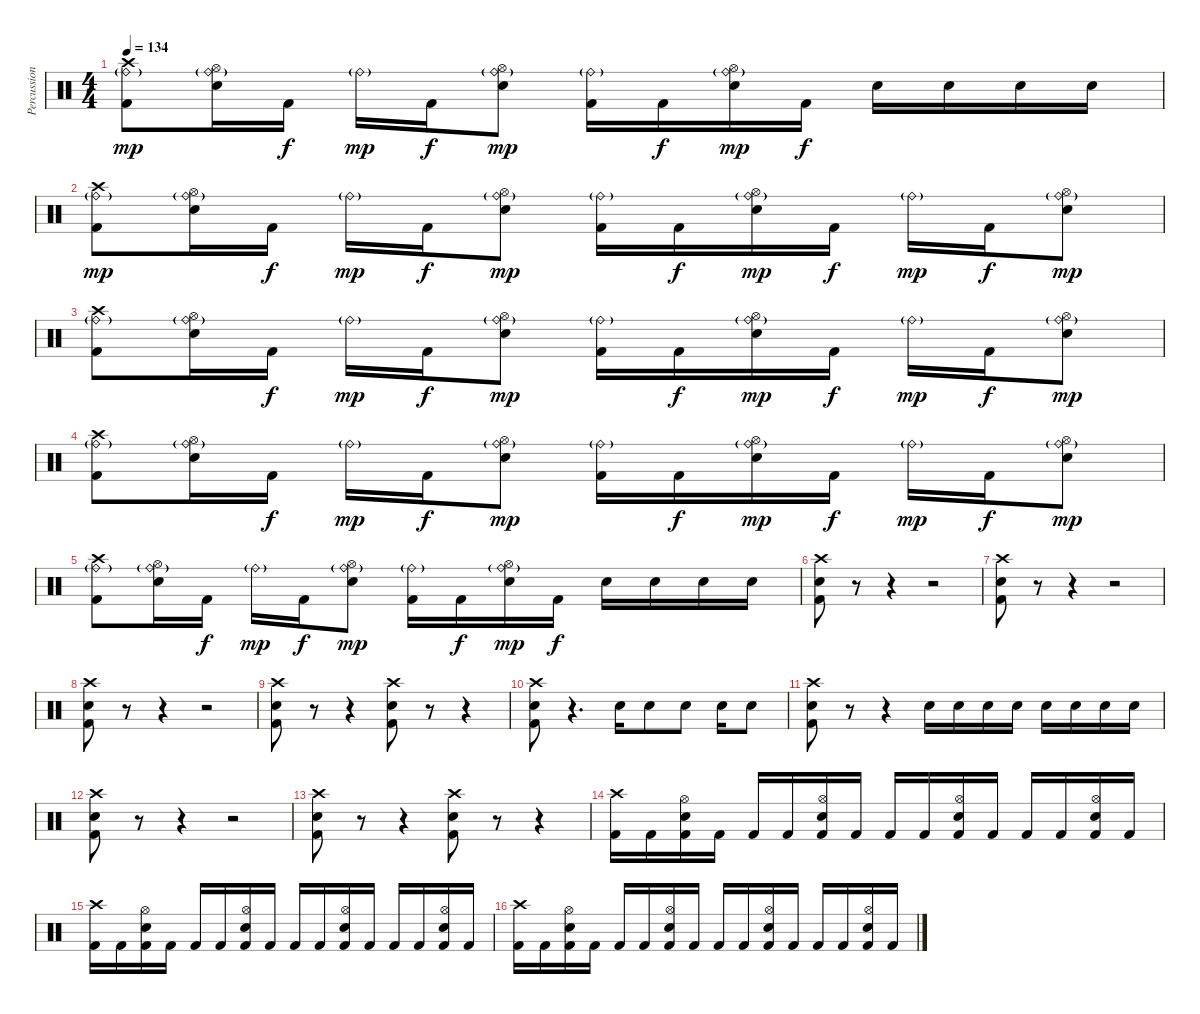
\track ("Percussion" "Percussion") {instrument percussion}
\staff {score}
\articulation defaults
\ts (4 4)
\tempo 134
\clef neutral
\ks aminor
("Crash high (hit)" "Ride (bell)"{g} "Kick (hit) 2").8{dy mp} ("Hi-Hat (open)" "Ride (bell)"{g} "Electric Snare (hit)").16 "Kick (hit) 2".16{dy f} "Ride (bell)"{g}.16{dy mp} "Kick (hit) 2".16{dy f} ("Hi-Hat (open)" "Ride (bell)"{g} "Electric Snare (hit)").8{dy mp} ("Ride (bell)"{g} "Kick (hit) 2").16 "Kick (hit) 2".16{dy f} ("Hi-Hat (open)" "Ride (bell)"{g} "Electric Snare (hit)").16{dy mp} "Kick (hit) 2".16{dy f} "Electric Snare (hit)".16 "Electric Snare (hit)".16 "Electric Snare (hit)".16 "Electric Snare (hit)".16 |
("Crash high (hit)" "Ride (bell)"{g} "Kick (hit) 2").8{dy mp} ("Hi-Hat (open)" "Ride (bell)"{g} "Electric Snare (hit)").16 "Kick (hit) 2".16{dy f} "Ride (bell)"{g}.16{dy mp} "Kick (hit) 2".16{dy f} ("Hi-Hat (open)" "Ride (bell)"{g} "Electric Snare (hit)").8{dy mp} ("Ride (bell)"{g} "Kick (hit) 2").16 "Kick (hit) 2".16{dy f} ("Hi-Hat (open)" "Ride (bell)"{g} "Electric Snare (hit)").16{dy mp} "Kick (hit) 2".16{dy f} "Ride (bell)"{g}.16{dy mp} "Kick (hit) 2".16{dy f} ("Hi-Hat (open)" "Ride (bell)"{g} "Electric Snare (hit)").8{dy mp} |
("Crash high (hit)" "Ride (bell)"{g} "Kick (hit) 2").8 ("Hi-Hat (open)" "Ride (bell)"{g} "Electric Snare (hit)").16 "Kick (hit) 2".16{dy f} "Ride (bell)"{g}.16{dy mp} "Kick (hit) 2".16{dy f} ("Hi-Hat (open)" "Ride (bell)"{g} "Electric Snare (hit)").8{dy mp} ("Ride (bell)"{g} "Kick (hit) 2").16 "Kick (hit) 2".16{dy f} ("Hi-Hat (open)" "Ride (bell)"{g} "Electric Snare (hit)").16{dy mp} "Kick (hit) 2".16{dy f} "Ride (bell)"{g}.16{dy mp} "Kick (hit) 2".16{dy f} ("Hi-Hat (open)" "Ride (bell)"{g} "Electric Snare (hit)").8{dy mp} |
("Crash high (hit)" "Ride (bell)"{g} "Kick (hit) 2").8 ("Hi-Hat (open)" "Ride (bell)"{g} "Electric Snare (hit)").16 "Kick (hit) 2".16{dy f} "Ride (bell)"{g}.16{dy mp} "Kick (hit) 2".16{dy f} ("Hi-Hat (open)" "Ride (bell)"{g} "Electric Snare (hit)").8{dy mp} ("Ride (bell)"{g} "Kick (hit) 2").16 "Kick (hit) 2".16{dy f} ("Hi-Hat (open)" "Ride (bell)"{g} "Electric Snare (hit)").16{dy mp} "Kick (hit) 2".16{dy f} "Ride (bell)"{g}.16{dy mp} "Kick (hit) 2".16{dy f} ("Hi-Hat (open)" "Ride (bell)"{g} "Electric Snare (hit)").8{dy mp} |
("Crash high (hit)" "Ride (bell)"{g} "Kick (hit) 2").8 ("Hi-Hat (open)" "Ride (bell)"{g} "Electric Snare (hit)").16 "Kick (hit) 2".16{dy f} "Ride (bell)"{g}.16{dy mp} "Kick (hit) 2".16{dy f} ("Hi-Hat (open)" "Ride (bell)"{g} "Electric Snare (hit)").8{dy mp} ("Ride (bell)"{g} "Kick (hit) 2").16 "Kick (hit) 2".16{dy f} ("Hi-Hat (open)" "Ride (bell)"{g} "Electric Snare (hit)").16{dy mp} "Kick (hit) 2".16{dy f} "Electric Snare (hit)".16 "Electric Snare (hit)".16 "Electric Snare (hit)".16 "Electric Snare (hit)".16 |
("Crash high (hit)" "Electric Snare (hit)" "Kick (hit) 2").8 r.8 r.4 r.2 |
("Crash high (hit)" "Electric Snare (hit)" "Kick (hit) 2").8 r.8 r.4 r.2 |
("Crash high (hit)" "Electric Snare (hit)" "Kick (hit) 2").8 r.8 r.4 r.2 |
("Crash high (hit)" "Electric Snare (hit)" "Kick (hit) 2").8 r.8 r.4 ("Crash high (hit)" "Electric Snare (hit)" "Kick (hit) 2").8 r.8 r.4 |
("Crash high (hit)" "Electric Snare (hit)" "Kick (hit) 2").8 r.4{d} "Electric Snare (hit)".16 "Electric Snare (hit)".8 "Electric Snare (hit)".8 "Electric Snare (hit)".16 "Electric Snare (hit)".8 |
("Crash high (hit)" "Electric Snare (hit)" "Kick (hit) 2").8 r.8 r.4 "Electric Snare (hit)".16 "Electric Snare (hit)".16 "Electric Snare (hit)".16 "Electric Snare (hit)".16 "Electric Snare (hit)".16 "Electric Snare (hit)".16 "Electric Snare (hit)".16 "Electric Snare (hit)".16 |
("Crash high (hit)" "Electric Snare (hit)" "Kick (hit) 2").8 r.8 r.4 r.2 |
("Crash high (hit)" "Electric Snare (hit)" "Kick (hit) 2").8 r.8 r.4 ("Crash high (hit)" "Electric Snare (hit)" "Kick (hit) 2").8 r.8 r.4 |
("Crash high (hit)" "Kick (hit) 2").16 "Kick (hit) 2".16 ("Hi-Hat (open)" "Electric Snare (hit)" "Kick (hit) 2").16 "Kick (hit) 2".16 "Kick (hit) 2".16 "Kick (hit) 2".16 ("Hi-Hat (open)" "Electric Snare (hit)" "Kick (hit) 2").16 "Kick (hit) 2".16 "Kick (hit) 2".16 "Kick (hit) 2".16 ("Hi-Hat (open)" "Electric Snare (hit)" "Kick (hit) 2").16 "Kick (hit) 2".16 "Kick (hit) 2".16 "Kick (hit) 2".16 ("Hi-Hat (open)" "Electric Snare (hit)" "Kick (hit) 2").16 "Kick (hit) 2".16 |
("Crash high (hit)" "Kick (hit) 2").16 "Kick (hit) 2".16 ("Hi-Hat (open)" "Electric Snare (hit)" "Kick (hit) 2").16 "Kick (hit) 2".16 "Kick (hit) 2".16 "Kick (hit) 2".16 ("Hi-Hat (open)" "Electric Snare (hit)" "Kick (hit) 2").16 "Kick (hit) 2".16 "Kick (hit) 2".16 "Kick (hit) 2".16 ("Hi-Hat (open)" "Electric Snare (hit)" "Kick (hit) 2").16 "Kick (hit) 2".16 "Kick (hit) 2".16 "Kick (hit) 2".16 ("Hi-Hat (open)" "Electric Snare (hit)" "Kick (hit) 2").16 "Kick (hit) 2".16 |
("Crash high (hit)" "Kick (hit) 2").16 "Kick (hit) 2".16 ("Hi-Hat (open)" "Electric Snare (hit)" "Kick (hit) 2").16 "Kick (hit) 2".16 "Kick (hit) 2".16 "Kick (hit) 2".16 ("Hi-Hat (open)" "Electric Snare (hit)" "Kick (hit) 2").16 "Kick (hit) 2".16 "Kick (hit) 2".16 "Kick (hit) 2".16 ("Hi-Hat (open)" "Electric Snare (hit)" "Kick (hit) 2").16 "Kick (hit) 2".16 "Kick (hit) 2".16 "Kick (hit) 2".16 ("Hi-Hat (open)" "Electric Snare (hit)" "Kick (hit) 2").16 "Kick (hit) 2".16
